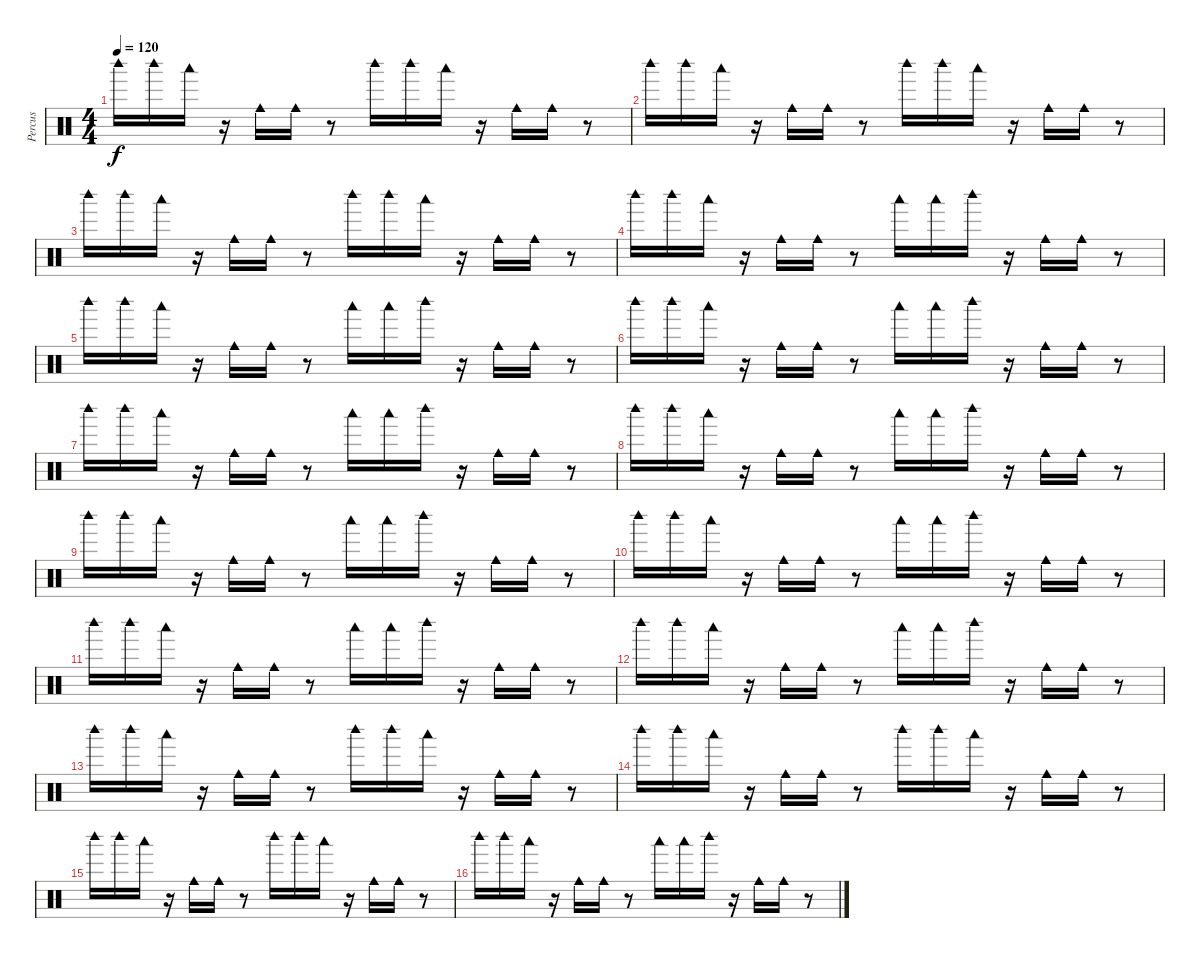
\track ("Percus" "Percus") {instrument percussion}
\staff {score}
\articulation defaults
\ts (4 4)
\tempo 120
\clef neutral
\ks c "Woodblock high (hit)".16{dy f} "Woodblock high (hit)".16 "Woodblock low (hit)".16
r.16 "Cowbell medium (hit)".16 "Cowbell medium (hit)".16 r.8 "Woodblock high (hit)".16 "Woodblock high (hit)".16 "Woodblock low (hit)".16 r.16 "Cowbell medium (hit)".16 "Cowbell medium (hit)".16 r.8 |
"Woodblock high (hit)".16 "Woodblock high (hit)".16 "Woodblock low (hit)".16 r.16 "Cowbell medium (hit)".16 "Cowbell medium (hit)".16 r.8 "Woodblock high (hit)".16 "Woodblock high (hit)".16 "Woodblock low (hit)".16 r.16 "Cowbell medium (hit)".16 "Cowbell medium (hit)".16 r.8 |
"Woodblock high (hit)".16 "Woodblock high (hit)".16 "Woodblock low (hit)".16 r.16 "Cowbell medium (hit)".16 "Cowbell medium (hit)".16 r.8 "Woodblock high (hit)".16 "Woodblock high (hit)".16 "Woodblock low (hit)".16 r.16 "Cowbell medium (hit)".16 "Cowbell medium (hit)".16 r.8 |
"Woodblock high (hit)".16 "Woodblock high (hit)".16 "Woodblock low (hit)".16 r.16 "Cowbell medium (hit)".16 "Cowbell medium (hit)".16 r.8 "Woodblock low (hit)".16 "Woodblock low (hit)".16 "Woodblock high (hit)".16 r.16 "Cowbell medium (hit)".16 "Cowbell medium (hit)".16 r.8 |
"Woodblock high (hit)".16 "Woodblock high (hit)".16 "Woodblock low (hit)".16 r.16 "Cowbell medium (hit)".16 "Cowbell medium (hit)".16 r.8 "Woodblock low (hit)".16 "Woodblock low (hit)".16 "Woodblock high (hit)".16 r.16 "Cowbell medium (hit)".16 "Cowbell medium (hit)".16 r.8 |
"Woodblock high (hit)".16 "Woodblock high (hit)".16 "Woodblock low (hit)".16 r.16 "Cowbell medium (hit)".16 "Cowbell medium (hit)".16 r.8 "Woodblock low (hit)".16 "Woodblock low (hit)".16 "Woodblock high (hit)".16 r.16 "Cowbell medium (hit)".16 "Cowbell medium (hit)".16 r.8 |
"Woodblock high (hit)".16 "Woodblock high (hit)".16 "Woodblock low (hit)".16 r.16 "Cowbell medium (hit)".16 "Cowbell medium (hit)".16 r.8 "Woodblock low (hit)".16 "Woodblock low (hit)".16 "Woodblock high (hit)".16 r.16 "Cowbell medium (hit)".16 "Cowbell medium (hit)".16 r.8 |
"Woodblock high (hit)".16 "Woodblock high (hit)".16 "Woodblock low (hit)".16 r.16 "Cowbell medium (hit)".16 "Cowbell medium (hit)".16 r.8 "Woodblock low (hit)".16 "Woodblock low (hit)".16 "Woodblock high (hit)".16 r.16 "Cowbell medium (hit)".16 "Cowbell medium (hit)".16 r.8 |
"Woodblock high (hit)".16 "Woodblock high (hit)".16 "Woodblock low (hit)".16 r.16 "Cowbell medium (hit)".16 "Cowbell medium (hit)".16 r.8 "Woodblock low (hit)".16 "Woodblock low (hit)".16 "Woodblock high (hit)".16 r.16 "Cowbell medium (hit)".16 "Cowbell medium (hit)".16 r.8 |
"Woodblock high (hit)".16 "Woodblock high (hit)".16 "Woodblock low (hit)".16 r.16 "Cowbell medium (hit)".16 "Cowbell medium (hit)".16 r.8 "Woodblock low (hit)".16 "Woodblock low (hit)".16 "Woodblock high (hit)".16 r.16 "Cowbell medium (hit)".16 "Cowbell medium (hit)".16 r.8 |
"Woodblock high (hit)".16 "Woodblock high (hit)".16 "Woodblock low (hit)".16 r.16 "Cowbell medium (hit)".16 "Cowbell medium (hit)".16 r.8 "Woodblock low (hit)".16 "Woodblock low (hit)".16 "Woodblock high (hit)".16 r.16 "Cowbell medium (hit)".16 "Cowbell medium (hit)".16 r.8 |
"Woodblock high (hit)".16 "Woodblock high (hit)".16 "Woodblock low (hit)".16 r.16 "Cowbell medium (hit)".16 "Cowbell medium (hit)".16 r.8 "Woodblock low (hit)".16 "Woodblock low (hit)".16 "Woodblock high (hit)".16 r.16 "Cowbell medium (hit)".16 "Cowbell medium (hit)".16 r.8 |
"Woodblock high (hit)".16 "Woodblock high (hit)".16 "Woodblock low (hit)".16 r.16 "Cowbell medium (hit)".16 "Cowbell medium (hit)".16 r.8 "Woodblock high (hit)".16 "Woodblock high (hit)".16 "Woodblock low (hit)".16 r.16 "Cowbell medium (hit)".16 "Cowbell medium (hit)".16 r.8 |
"Woodblock high (hit)".16 "Woodblock high (hit)".16 "Woodblock low (hit)".16 r.16 "Cowbell medium (hit)".16 "Cowbell medium (hit)".16 r.8 "Woodblock high (hit)".16 "Woodblock high (hit)".16 "Woodblock low (hit)".16 r.16 "Cowbell medium (hit)".16 "Cowbell medium (hit)".16 r.8 |
"Woodblock high (hit)".16 "Woodblock high (hit)".16 "Woodblock low (hit)".16 r.16 "Cowbell medium (hit)".16 "Cowbell medium (hit)".16 r.8 "Woodblock high (hit)".16 "Woodblock high (hit)".16 "Woodblock low (hit)".16 r.16 "Cowbell medium (hit)".16 "Cowbell medium (hit)".16 r.8 |
"Woodblock high (hit)".16 "Woodblock high (hit)".16 "Woodblock low (hit)".16 r.16 "Cowbell medium (hit)".16 "Cowbell medium (hit)".16 r.8 "Woodblock low (hit)".16 "Woodblock low (hit)".16 "Woodblock high (hit)".16 r.16 "Cowbell medium (hit)".16 "Cowbell medium (hit)".16 r.8
